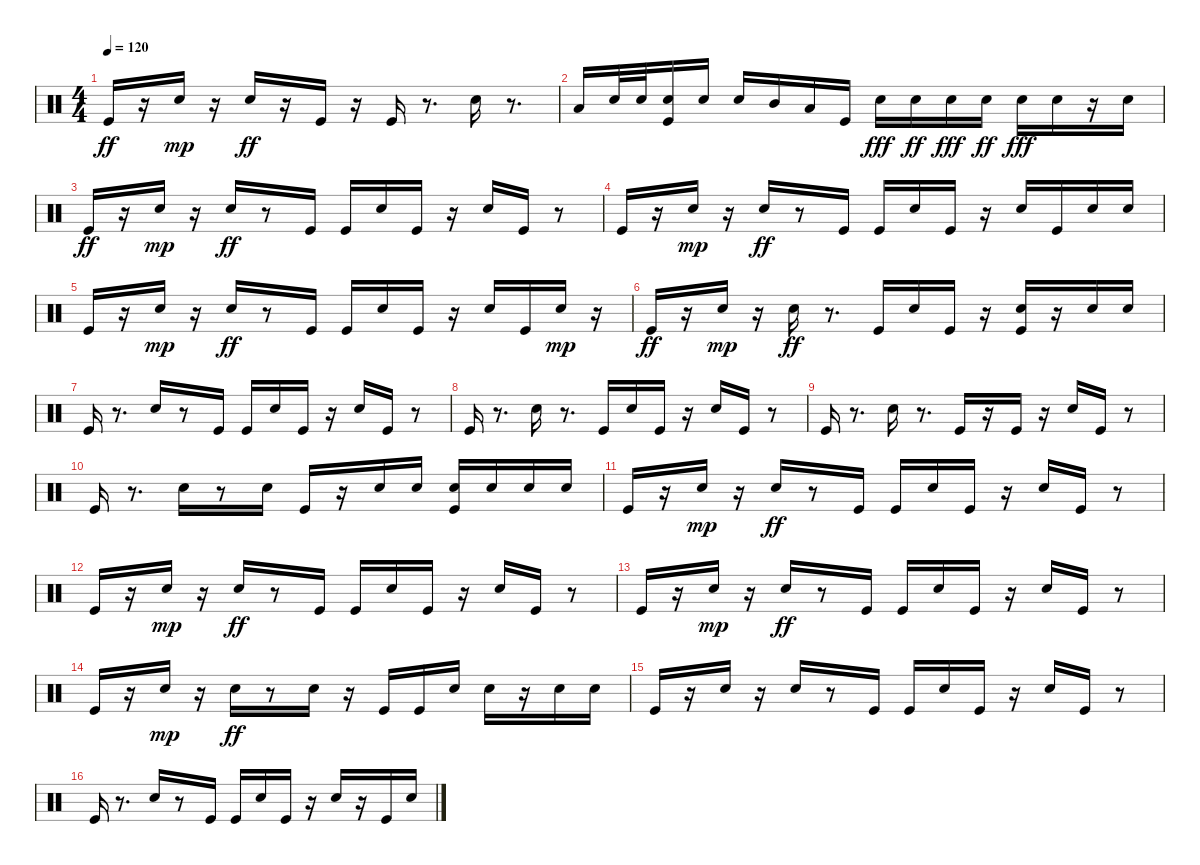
\track "" {instrument percussion}
\staff {score}
\articulation defaults
\ts (4 4)
\tempo 120
\clef neutral
\ks c "Kick (hit)".16{dy ff}
r.16 "Electric Snare (hit)".16{dy mp} r.16 "Electric Snare (hit)".16{dy ff} r.16 "Kick (hit)".16 r.16 "Kick (hit)".16 r.8{d} "Electric Snare (hit)".16 r.8{d} |
"Low Tom (hit)".16 "Electric Snare (hit)".32 "Electric Snare (hit)".32 ("Kick (hit)" "Electric Snare (hit)").16 "Electric Snare (hit)".16 "Electric Snare (hit)".16 "Mid Tom (hit)".16 "Low Tom (hit)".16 "Kick (hit)".16 "Electric Snare (hit)".16{dy fff} "Electric Snare (hit)".16{dy ff} "Electric Snare (hit)".16{dy fff} "Electric Snare (hit)".16{dy ff} "Electric Snare (hit)".16{dy fff} "Electric Snare (hit)".16 r.16 "Electric Snare (hit)".16 |
"Kick (hit)".16{dy ff} r.16 "Electric Snare (hit)".16{dy mp} r.16 "Electric Snare (hit)".16{dy ff} r.8 "Kick (hit)".16 "Kick (hit)".16 "Electric Snare (hit)".16 "Kick (hit)".16 r.16 "Electric Snare (hit)".16 "Kick (hit)".16 r.8 |
"Kick (hit)".16 r.16 "Electric Snare (hit)".16{dy mp} r.16 "Electric Snare (hit)".16{dy ff} r.8 "Kick (hit)".16 "Kick (hit)".16 "Electric Snare (hit)".16 "Kick (hit)".16 r.16 "Electric Snare (hit)".16 "Kick (hit)".16 "Electric Snare (hit)".16 "Electric Snare (hit)".16 |
"Kick (hit)".16 r.16 "Electric Snare (hit)".16{dy mp} r.16 "Electric Snare (hit)".16{dy ff} r.8 "Kick (hit)".16 "Kick (hit)".16 "Electric Snare (hit)".16 "Kick (hit)".16 r.16 "Electric Snare (hit)".16 "Kick (hit)".16 "Electric Snare (hit)".16{dy mp} r.16 |
"Kick (hit)".16{dy ff} r.16 "Electric Snare (hit)".16{dy mp} r.16 "Electric Snare (hit)".16{dy ff} r.8{d} "Kick (hit)".16 "Electric Snare (hit)".16 "Kick (hit)".16 r.16 ("Kick (hit)" "Electric Snare (hit)").16 r.16 "Electric Snare (hit)".16 "Electric Snare (hit)".16 |
"Kick (hit)".16 r.8{d} "Electric Snare (hit)".16 r.8 "Kick (hit)".16 "Kick (hit)".16 "Electric Snare (hit)".16 "Kick (hit)".16 r.16 "Electric Snare (hit)".16 "Kick (hit)".16 r.8 |
"Kick (hit)".16 r.8{d} "Electric Snare (hit)".16 r.8{d} "Kick (hit)".16 "Electric Snare (hit)".16 "Kick (hit)".16 r.16 "Electric Snare (hit)".16 "Kick (hit)".16 r.8 |
"Kick (hit)".16 r.8{d} "Electric Snare (hit)".16 r.8{d} "Kick (hit)".16 r.16 "Kick (hit)".16 r.16 "Electric Snare (hit)".16 "Kick (hit)".16 r.8 |
"Kick (hit)".16 r.8{d} "Electric Snare (hit)".16 r.8 "Electric Snare (hit)".16 "Kick (hit)".16 r.16 "Electric Snare (hit)".16 "Electric Snare (hit)".16 ("Kick (hit)" "Electric Snare (hit)").16 "Electric Snare (hit)".16 "Electric Snare (hit)".16 "Electric Snare (hit)".16 |
"Kick (hit)".16 r.16 "Electric Snare (hit)".16{dy mp} r.16 "Electric Snare (hit)".16{dy ff} r.8 "Kick (hit)".16 "Kick (hit)".16 "Electric Snare (hit)".16 "Kick (hit)".16 r.16 "Electric Snare (hit)".16 "Kick (hit)".16 r.8 |
"Kick (hit)".16 r.16 "Electric Snare (hit)".16{dy mp} r.16 "Electric Snare (hit)".16{dy ff} r.8 "Kick (hit)".16 "Kick (hit)".16 "Electric Snare (hit)".16 "Kick (hit)".16 r.16 "Electric Snare (hit)".16 "Kick (hit)".16 r.8 |
"Kick (hit)".16 r.16 "Electric Snare (hit)".16{dy mp} r.16 "Electric Snare (hit)".16{dy ff} r.8 "Kick (hit)".16 "Kick (hit)".16 "Electric Snare (hit)".16 "Kick (hit)".16 r.16 "Electric Snare (hit)".16 "Kick (hit)".16 r.8 |
"Kick (hit)".16 r.16 "Electric Snare (hit)".16{dy mp} r.16 "Electric Snare (hit)".16{dy ff} r.8 "Electric Snare (hit)".16 r.16 "Kick (hit)".16 "Kick (hit)".16 "Electric Snare (hit)".16 "Electric Snare (hit)".16 r.16 "Electric Snare (hit)".16 "Electric Snare (hit)".16 |
"Kick (hit)".16 r.16 "Electric Snare (hit)".16 r.16 "Electric Snare (hit)".16 r.8 "Kick (hit)".16 "Kick (hit)".16 "Electric Snare (hit)".16 "Kick (hit)".16 r.16 "Electric Snare (hit)".16 "Kick (hit)".16 r.8 |
"Kick (hit)".16 r.8{d} "Electric Snare (hit)".16 r.8 "Kick (hit)".16 "Kick (hit)".16 "Electric Snare (hit)".16 "Kick (hit)".16 r.16 "Electric Snare (hit)".16 r.16 "Kick (hit)".16 "Electric Snare (hit)".16
